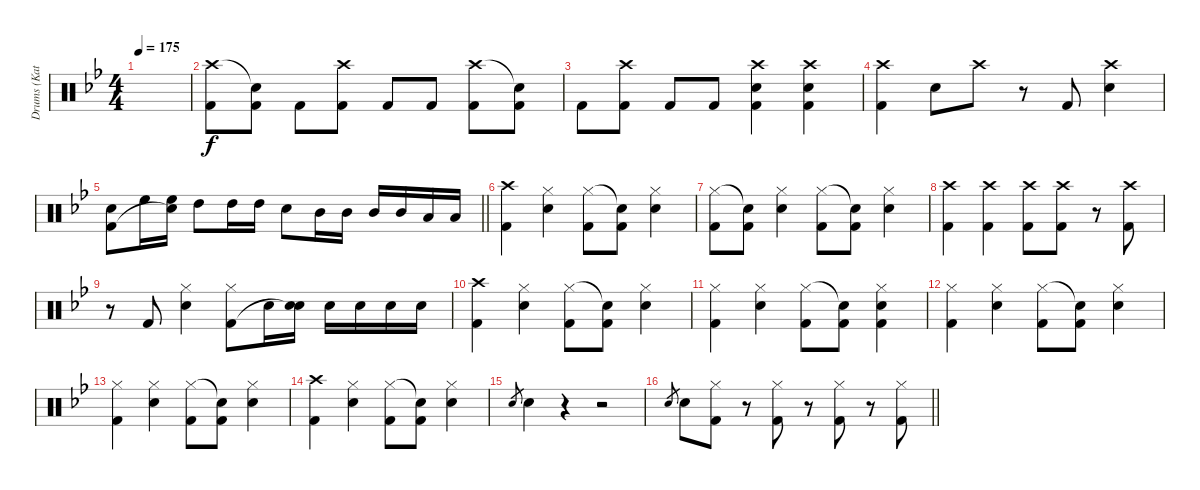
\track ("Drums (Katsuji)" "Drums (Kat") {instrument percussion}
\staff {score}
\articulation defaults
\ts (4 4)
\tempo 175
\clef neutral
\ks bb
|
("Crash high (hit)" "Kick (hit) 2").8 ("Snare (hit)"{t} "Kick (hit) 2").8 "Kick (hit) 2".8 ("Crash high (hit)" "Kick (hit) 2").8 "Kick (hit) 2".8 "Kick (hit) 2".8 ("Crash high (hit)" "Kick (hit) 2").8 ("Snare (hit)"{t} "Kick (hit) 2").8 |
"Kick (hit) 2".8 ("Crash high (hit)" "Kick (hit) 2").8 "Kick (hit) 2".8 "Kick (hit) 2".8 ("Crash high (hit)" "Snare (hit) 2" "Kick (hit) 2").4 ("Crash high (hit)" "Snare (hit) 2" "Kick (hit) 2").4 |
("Crash high (hit)" "Kick (hit) 2").4 "Snare (hit) 2".8 "Crash high (hit)".8 r.8 "Kick (hit) 2".8 ("Crash high (hit)" "Snare (hit) 2").4 |
\barLineRight lightlight
("Snare (hit) 2" "Kick (hit) 2").8 "High Floor Tom (hit)".16 ("High Floor Tom (hit)" "Snare (hit)"{t}).16 "High Tom (hit)".8 "High Tom (hit)".16 "High Tom (hit)".16 "Snare (hit) 2".8 "Mid Tom (hit)".16 "Mid Tom (hit)".16 "Mid Tom (hit)".16 "Mid Tom (hit)".16 "Low Tom (hit)".16 "Low Tom (hit)".16 |
("Crash high (hit)" "Kick (hit) 2").4 ("Hi-Hat (closed)" "Snare (hit) 2").4 ("Hi-Hat (closed)" "Kick (hit) 2").8 ("Snare (hit)"{t} "Kick (hit) 2").8 ("Hi-Hat (closed)" "Snare (hit) 2").4 |
("Hi-Hat (closed)" "Kick (hit) 2").8 ("Snare (hit)"{t} "Kick (hit) 2").8 ("Hi-Hat (closed)" "Snare (hit) 2").4 ("Hi-Hat (closed)" "Kick (hit) 2").8 ("Snare (hit)"{t} "Kick (hit) 2").8 ("Hi-Hat (closed)" "Snare (hit) 2").4 |
("Crash high (hit)" "Kick (hit) 2").4 ("Crash high (hit)" "Kick (hit) 2").4 ("Crash high (hit)" "Kick (hit) 2").8 ("Crash high (hit)" "Kick (hit) 2").8 r.8 ("Crash high (hit)" "Kick (hit) 2").8 |
r.8 "Kick (hit) 2".8 ("Hi-Hat (closed)" "Snare (hit) 2").4 ("Hi-Hat (closed)" "Kick (hit) 2").8 "Snare (hit) 2".16 ("Snare (hit) 2" "Snare (hit)"{t}).16 "Snare (hit) 2".16 "Snare (hit) 2".16 "Snare (hit) 2".16 "Snare (hit) 2".16 |
("Crash high (hit)" "Kick (hit) 2").4 ("Hi-Hat (closed)" "Snare (hit) 2").4 ("Hi-Hat (closed)" "Kick (hit) 2").8 ("Snare (hit)"{t} "Kick (hit) 2").8 ("Hi-Hat (closed)" "Snare (hit) 2").4 |
("Hi-Hat (closed)" "Kick (hit) 2").4 ("Hi-Hat (closed)" "Snare (hit) 2").4 ("Hi-Hat (closed)" "Kick (hit) 2").8 ("Snare (hit)"{t} "Kick (hit) 2").8 ("Hi-Hat (closed)" "Snare (hit) 2" "Kick (hit) 2").4 |
("Hi-Hat (closed)" "Kick (hit) 2").4 ("Hi-Hat (closed)" "Snare (hit) 2").4 ("Hi-Hat (closed)" "Kick (hit) 2").8 ("Snare (hit)"{t} "Kick (hit) 2").8 ("Hi-Hat (closed)" "Snare (hit) 2").4 |
("Hi-Hat (closed)" "Kick (hit) 2").4 ("Hi-Hat (closed)" "Snare (hit) 2").4 ("Hi-Hat (closed)" "Kick (hit) 2").8 ("Snare (hit)"{t} "Kick (hit) 2").8 ("Hi-Hat (closed)" "Snare (hit) 2").4 |
("Crash high (hit)" "Kick (hit) 2").4 ("Hi-Hat (closed)" "Snare (hit) 2").4 ("Hi-Hat (closed)" "Kick (hit) 2").8 ("Snare (hit)"{t} "Kick (hit) 2").8 ("Hi-Hat (closed)" "Snare (hit) 2").4 |
"Snare (hit) 2".8{gr} "Snare (hit) 2".4 r.4 r.2 |
\barLineRight lightlight "Snare (hit) 2".8{gr} "Snare (hit) 2".8
("Hi-Hat (closed)" "Kick (hit) 2").8 r.8 ("Hi-Hat (closed)" "Kick (hit) 2").8 r.8 ("Hi-Hat (closed)" "Kick (hit) 2").8 r.8 ("Hi-Hat (closed)" "Kick (hit) 2").8
